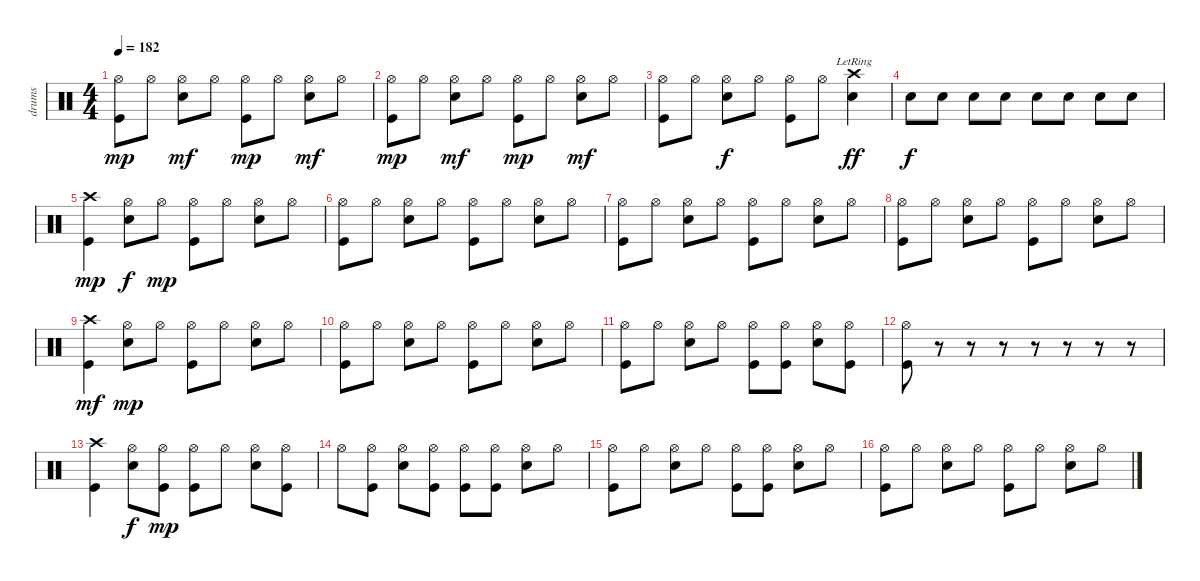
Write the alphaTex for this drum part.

\track ("drums" "drums") {instrument percussion}
\staff {score}
\articulation defaults
\ts (4 4)
\tempo 182
\clef neutral
\ks c
("Kick (hit)" "Hi-Hat (open)").8{dy mp} "Hi-Hat (open)".8 ("Snare (hit) 2" "Hi-Hat (open)").8{dy mf} "Hi-Hat (open)".8 ("Kick (hit)" "Hi-Hat (open)").8{dy mp} "Hi-Hat (open)".8 ("Snare (hit) 2" "Hi-Hat (open)").8{dy mf} "Hi-Hat (open)".8 |
("Kick (hit)" "Hi-Hat (open)").8{dy mp} "Hi-Hat (open)".8 ("Snare (hit) 2" "Hi-Hat (open)").8{dy mf} "Hi-Hat (open)".8 ("Kick (hit)" "Hi-Hat (open)").8{dy mp} "Hi-Hat (open)".8 ("Snare (hit) 2" "Hi-Hat (open)").8{dy mf} "Hi-Hat (open)".8 |
("Kick (hit)" "Hi-Hat (open)").8 "Hi-Hat (open)".8 ("Snare (hit) 2" "Hi-Hat (open)").8{dy f} "Hi-Hat (open)".8 ("Kick (hit)" "Hi-Hat (open)").8 "Hi-Hat (open)".8 ("Snare (hit) 2" "Crash high (hit)"{lr}).4{dy ff} |
"Snare (hit) 2".8{dy f} "Snare (hit) 2".8 "Snare (hit) 2".8 "Snare (hit) 2".8 "Snare (hit) 2".8 "Snare (hit) 2".8 "Snare (hit) 2".8 "Snare (hit) 2".8 |
("Kick (hit)" "Crash high (hit)").4{dy mp} ("Snare (hit) 2" "Hi-Hat (open)").8{dy f} "Hi-Hat (open)".8{dy mp} ("Kick (hit)" "Hi-Hat (open)").8 "Hi-Hat (open)".8 ("Snare (hit) 2" "Hi-Hat (open)").8 "Hi-Hat (open)".8 |
("Kick (hit)" "Hi-Hat (open)").8 "Hi-Hat (open)".8 ("Snare (hit) 2" "Hi-Hat (open)").8 "Hi-Hat (open)".8 ("Kick (hit)" "Hi-Hat (open)").8 "Hi-Hat (open)".8 ("Snare (hit) 2" "Hi-Hat (open)").8 "Hi-Hat (open)".8 |
("Kick (hit)" "Hi-Hat (open)").8 "Hi-Hat (open)".8 ("Snare (hit) 2" "Hi-Hat (open)").8 "Hi-Hat (open)".8 ("Kick (hit)" "Hi-Hat (open)").8 "Hi-Hat (open)".8 ("Snare (hit) 2" "Hi-Hat (open)").8 "Hi-Hat (open)".8 |
("Kick (hit)" "Hi-Hat (open)").8 "Hi-Hat (open)".8 ("Snare (hit) 2" "Hi-Hat (open)").8 "Hi-Hat (open)".8 ("Kick (hit)" "Hi-Hat (open)").8 "Hi-Hat (open)".8 ("Snare (hit) 2" "Hi-Hat (open)").8 "Hi-Hat (open)".8 |
("Kick (hit)" "Crash high (hit)").4{dy mf} ("Snare (hit) 2" "Hi-Hat (open)").8{dy mp} "Hi-Hat (open)".8 ("Kick (hit)" "Hi-Hat (open)").8 "Hi-Hat (open)".8 ("Snare (hit) 2" "Hi-Hat (open)").8 "Hi-Hat (open)".8 |
("Kick (hit)" "Hi-Hat (open)").8 "Hi-Hat (open)".8 ("Snare (hit) 2" "Hi-Hat (open)").8 "Hi-Hat (open)".8 ("Kick (hit)" "Hi-Hat (open)").8 "Hi-Hat (open)".8 ("Snare (hit) 2" "Hi-Hat (open)").8 "Hi-Hat (open)".8 |
("Kick (hit)" "Hi-Hat (open)").8 "Hi-Hat (open)".8 ("Snare (hit) 2" "Hi-Hat (open)").8 "Hi-Hat (open)".8 ("Kick (hit)" "Hi-Hat (open)").8 ("Kick (hit)" "Hi-Hat (open)").8 ("Snare (hit) 2" "Hi-Hat (open)").8 ("Kick (hit)" "Hi-Hat (open)").8 |
("Kick (hit)" "Hi-Hat (open)").8 r.8 r.8 r.8 r.8 r.8 r.8 r.8 |
("Kick (hit)" "Crash high (hit)").4 ("Snare (hit) 2" "Hi-Hat (open)").8{dy f} ("Kick (hit)" "Hi-Hat (open)").8{dy mp} ("Kick (hit)" "Hi-Hat (open)").8 "Hi-Hat (open)".8 ("Snare (hit) 2" "Hi-Hat (open)").8 ("Kick (hit)" "Hi-Hat (open)").8 |
"Hi-Hat (open)".8 ("Kick (hit)" "Hi-Hat (open)").8 ("Snare (hit) 2" "Hi-Hat (open)").8 ("Kick (hit)" "Hi-Hat (open)").8 ("Kick (hit)" "Hi-Hat (open)").8 ("Kick (hit)" "Hi-Hat (open)").8 ("Snare (hit) 2" "Hi-Hat (open)").8 "Hi-Hat (open)".8 |
("Kick (hit)" "Hi-Hat (open)").8 "Hi-Hat (open)".8 ("Snare (hit) 2" "Hi-Hat (open)").8 "Hi-Hat (open)".8 ("Kick (hit)" "Hi-Hat (open)").8 ("Kick (hit)" "Hi-Hat (open)").8 ("Snare (hit) 2" "Hi-Hat (open)").8 "Hi-Hat (open)".8 |
("Kick (hit)" "Hi-Hat (open)").8 "Hi-Hat (open)".8 ("Snare (hit) 2" "Hi-Hat (open)").8 "Hi-Hat (open)".8 ("Kick (hit)" "Hi-Hat (open)").8 "Hi-Hat (open)".8 ("Snare (hit) 2" "Hi-Hat (open)").8 "Hi-Hat (open)".8
